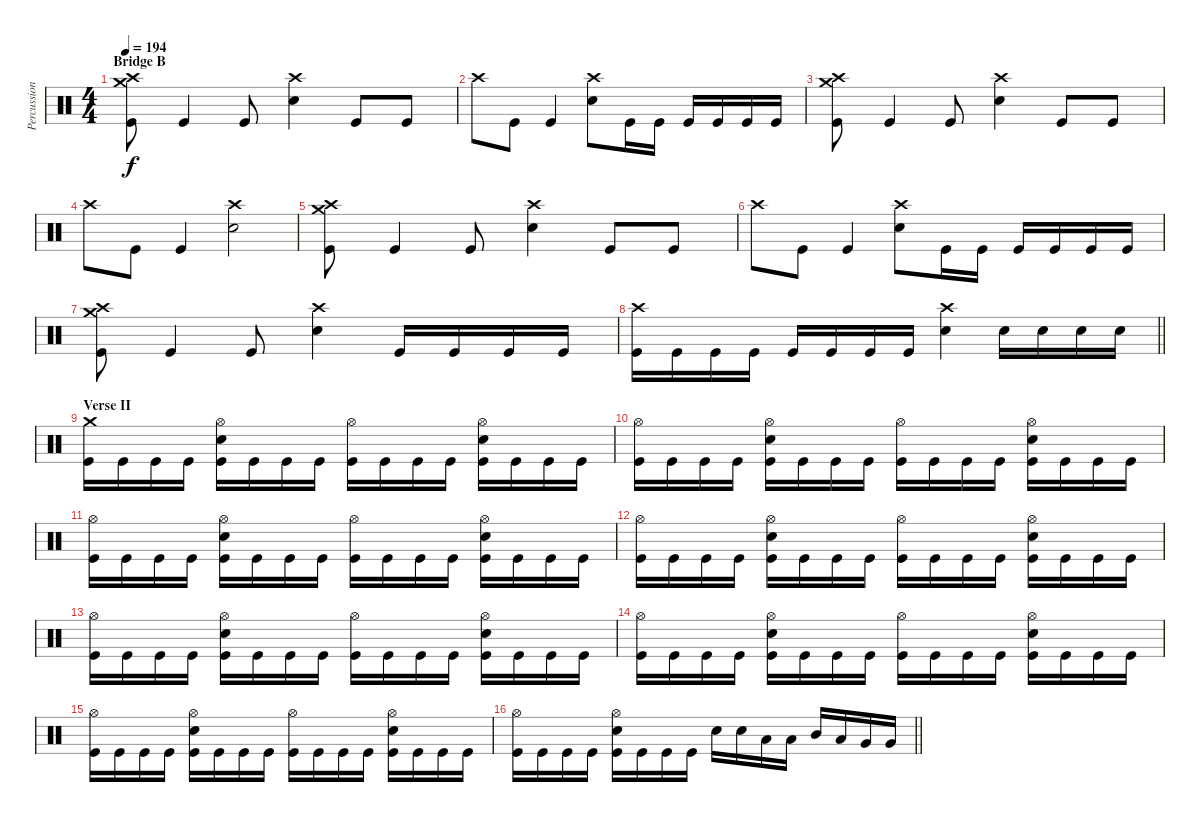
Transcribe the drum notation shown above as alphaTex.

\track ("Percussion" "Percussion") {instrument percussion}
\staff {score}
\articulation defaults
\ts (4 4)
\section ("" "Bridge B")
\tempo 194
\clef neutral
\ks c
("Crash high (hit)" "Crash medium (hit)" "Kick (hit)").8{dy f} "Kick (hit)".4 "Kick (hit)".8 ("Crash high (hit)" "Electric Snare (hit)").4 "Kick (hit)".8 "Kick (hit)".8 |
"Crash high (hit)".8 "Kick (hit)".8 "Kick (hit)".4 ("Crash high (hit)" "Electric Snare (hit)").8 "Kick (hit)".16 "Kick (hit)".16 "Kick (hit)".16 "Kick (hit)".16 "Kick (hit)".16 "Kick (hit)".16 |
("Crash high (hit)" "Crash medium (hit)" "Kick (hit)").8 "Kick (hit)".4 "Kick (hit)".8 ("Crash high (hit)" "Electric Snare (hit)").4 "Kick (hit)".8 "Kick (hit)".8 |
"Crash high (hit)".8 "Kick (hit)".8 "Kick (hit)".4 ("Crash high (hit)" "Electric Snare (hit)").2 |
("Crash high (hit)" "Crash medium (hit)" "Kick (hit)").8 "Kick (hit)".4 "Kick (hit)".8 ("Crash high (hit)" "Electric Snare (hit)").4 "Kick (hit)".8 "Kick (hit)".8 |
"Crash high (hit)".8 "Kick (hit)".8 "Kick (hit)".4 ("Crash high (hit)" "Electric Snare (hit)").8 "Kick (hit)".16 "Kick (hit)".16 "Kick (hit)".16 "Kick (hit)".16 "Kick (hit)".16 "Kick (hit)".16 |
("Crash high (hit)" "Crash medium (hit)" "Kick (hit)").8 "Kick (hit)".4 "Kick (hit)".8 ("Crash high (hit)" "Electric Snare (hit)").4 "Kick (hit)".16 "Kick (hit)".16 "Kick (hit)".16 "Kick (hit)".16 |
\barLineRight lightlight
("Crash high (hit)" "Kick (hit)").16 "Kick (hit)".16 "Kick (hit)".16 "Kick (hit)".16 "Kick (hit)".16 "Kick (hit)".16 "Kick (hit)".16 "Kick (hit)".16 ("Crash high (hit)" "Electric Snare (hit)").4 "Electric Snare (hit)".16 "Electric Snare (hit)".16 "Electric Snare (hit)".16 "Electric Snare (hit)".16 |
\section ("" "Verse II")
("Crash medium (hit)" "Kick (hit)").16 "Kick (hit)".16 "Kick (hit)".16 "Kick (hit)".16 ("Hi-Hat (open)" "Electric Snare (hit)" "Kick (hit)").16 "Kick (hit)".16 "Kick (hit)".16 "Kick (hit)".16 ("Hi-Hat (open)" "Kick (hit)").16 "Kick (hit)".16 "Kick (hit)".16 "Kick (hit)".16 ("Hi-Hat (open)" "Electric Snare (hit)" "Kick (hit)").16 "Kick (hit)".16 "Kick (hit)".16 "Kick (hit)".16 |
("Hi-Hat (open)" "Kick (hit)").16 "Kick (hit)".16 "Kick (hit)".16 "Kick (hit)".16 ("Hi-Hat (open)" "Electric Snare (hit)" "Kick (hit)").16 "Kick (hit)".16 "Kick (hit)".16 "Kick (hit)".16 ("Hi-Hat (open)" "Kick (hit)").16 "Kick (hit)".16 "Kick (hit)".16 "Kick (hit)".16 ("Hi-Hat (open)" "Electric Snare (hit)" "Kick (hit)").16 "Kick (hit)".16 "Kick (hit)".16 "Kick (hit)".16 |
("Hi-Hat (open)" "Kick (hit)").16 "Kick (hit)".16 "Kick (hit)".16 "Kick (hit)".16 ("Hi-Hat (open)" "Electric Snare (hit)" "Kick (hit)").16 "Kick (hit)".16 "Kick (hit)".16 "Kick (hit)".16 ("Hi-Hat (open)" "Kick (hit)").16 "Kick (hit)".16 "Kick (hit)".16 "Kick (hit)".16 ("Hi-Hat (open)" "Electric Snare (hit)" "Kick (hit)").16 "Kick (hit)".16 "Kick (hit)".16 "Kick (hit)".16 |
("Hi-Hat (open)" "Kick (hit)").16 "Kick (hit)".16 "Kick (hit)".16 "Kick (hit)".16 ("Hi-Hat (open)" "Electric Snare (hit)" "Kick (hit)").16 "Kick (hit)".16 "Kick (hit)".16 "Kick (hit)".16 ("Hi-Hat (open)" "Kick (hit)").16 "Kick (hit)".16 "Kick (hit)".16 "Kick (hit)".16 ("Hi-Hat (open)" "Electric Snare (hit)" "Kick (hit)").16 "Kick (hit)".16 "Kick (hit)".16 "Kick (hit)".16 |
("Hi-Hat (open)" "Kick (hit)").16 "Kick (hit)".16 "Kick (hit)".16 "Kick (hit)".16 ("Hi-Hat (open)" "Electric Snare (hit)" "Kick (hit)").16 "Kick (hit)".16 "Kick (hit)".16 "Kick (hit)".16 ("Hi-Hat (open)" "Kick (hit)").16 "Kick (hit)".16 "Kick (hit)".16 "Kick (hit)".16 ("Hi-Hat (open)" "Electric Snare (hit)" "Kick (hit)").16 "Kick (hit)".16 "Kick (hit)".16 "Kick (hit)".16 |
("Hi-Hat (open)" "Kick (hit)").16 "Kick (hit)".16 "Kick (hit)".16 "Kick (hit)".16 ("Hi-Hat (open)" "Electric Snare (hit)" "Kick (hit)").16 "Kick (hit)".16 "Kick (hit)".16 "Kick (hit)".16 ("Hi-Hat (open)" "Kick (hit)").16 "Kick (hit)".16 "Kick (hit)".16 "Kick (hit)".16 ("Hi-Hat (open)" "Electric Snare (hit)" "Kick (hit)").16 "Kick (hit)".16 "Kick (hit)".16 "Kick (hit)".16 |
("Hi-Hat (open)" "Kick (hit)").16 "Kick (hit)".16 "Kick (hit)".16 "Kick (hit)".16 ("Hi-Hat (open)" "Electric Snare (hit)" "Kick (hit)").16 "Kick (hit)".16 "Kick (hit)".16 "Kick (hit)".16 ("Hi-Hat (open)" "Kick (hit)").16 "Kick (hit)".16 "Kick (hit)".16 "Kick (hit)".16 ("Hi-Hat (open)" "Electric Snare (hit)" "Kick (hit)").16 "Kick (hit)".16 "Kick (hit)".16 "Kick (hit)".16 |
\barLineRight lightlight
("Hi-Hat (open)" "Kick (hit)").16 "Kick (hit)".16 "Kick (hit)".16 "Kick (hit)".16 ("Hi-Hat (open)" "Electric Snare (hit)" "Kick (hit)").16 "Kick (hit)".16 "Kick (hit)".16 "Kick (hit)".16 "Electric Snare (hit)".16 "Electric Snare (hit)".16 "Low Tom (hit)".16 "Low Tom (hit)".16 "Mid Tom (hit)".16 "Low Tom (hit)".16 "Very Low Tom (hit)".16 "Very Low Tom (hit)".16
